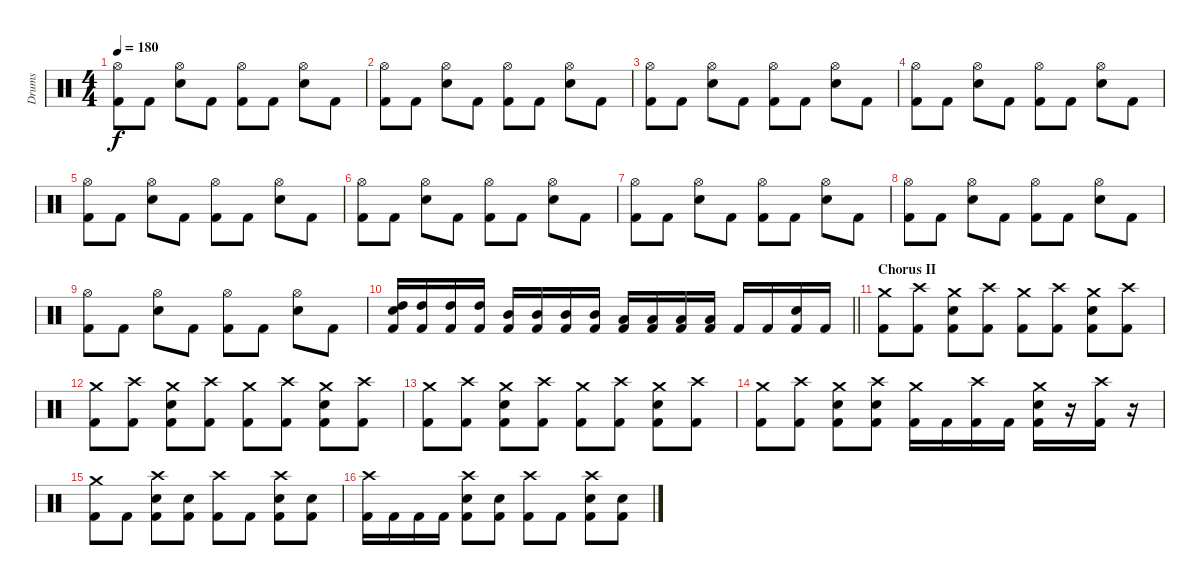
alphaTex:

\track ("Drums" "Drums") {instrument percussion}
\staff {score}
\articulation defaults
\ts (4 4)
\tempo 180
\clef neutral
\ks c
("Hi-Hat (open)" "Kick (hit) 2").8{dy f} "Kick (hit) 2".8 ("Hi-Hat (open)" "Electric Snare (hit)").8 "Kick (hit) 2".8 ("Hi-Hat (open)" "Kick (hit) 2").8 "Kick (hit) 2".8 ("Hi-Hat (open)" "Electric Snare (hit)").8 "Kick (hit) 2".8 |
("Hi-Hat (open)" "Kick (hit) 2").8 "Kick (hit) 2".8 ("Hi-Hat (open)" "Electric Snare (hit)").8 "Kick (hit) 2".8 ("Hi-Hat (open)" "Kick (hit) 2").8 "Kick (hit) 2".8 ("Hi-Hat (open)" "Electric Snare (hit)").8 "Kick (hit) 2".8 |
("Hi-Hat (open)" "Kick (hit) 2").8 "Kick (hit) 2".8 ("Hi-Hat (open)" "Electric Snare (hit)").8 "Kick (hit) 2".8 ("Hi-Hat (open)" "Kick (hit) 2").8 "Kick (hit) 2".8 ("Hi-Hat (open)" "Electric Snare (hit)").8 "Kick (hit) 2".8 |
("Hi-Hat (open)" "Kick (hit) 2").8 "Kick (hit) 2".8 ("Hi-Hat (open)" "Electric Snare (hit)").8 "Kick (hit) 2".8 ("Hi-Hat (open)" "Kick (hit) 2").8 "Kick (hit) 2".8 ("Hi-Hat (open)" "Electric Snare (hit)").8 "Kick (hit) 2".8 |
("Hi-Hat (open)" "Kick (hit) 2").8 "Kick (hit) 2".8 ("Hi-Hat (open)" "Electric Snare (hit)").8 "Kick (hit) 2".8 ("Hi-Hat (open)" "Kick (hit) 2").8 "Kick (hit) 2".8 ("Hi-Hat (open)" "Electric Snare (hit)").8 "Kick (hit) 2".8 |
("Hi-Hat (open)" "Kick (hit) 2").8 "Kick (hit) 2".8 ("Hi-Hat (open)" "Electric Snare (hit)").8 "Kick (hit) 2".8 ("Hi-Hat (open)" "Kick (hit) 2").8 "Kick (hit) 2".8 ("Hi-Hat (open)" "Electric Snare (hit)").8 "Kick (hit) 2".8 |
("Hi-Hat (open)" "Kick (hit) 2").8 "Kick (hit) 2".8 ("Hi-Hat (open)" "Electric Snare (hit)").8 "Kick (hit) 2".8 ("Hi-Hat (open)" "Kick (hit) 2").8 "Kick (hit) 2".8 ("Hi-Hat (open)" "Electric Snare (hit)").8 "Kick (hit) 2".8 |
("Hi-Hat (open)" "Kick (hit) 2").8 "Kick (hit) 2".8 ("Hi-Hat (open)" "Electric Snare (hit)").8 "Kick (hit) 2".8 ("Hi-Hat (open)" "Kick (hit) 2").8 "Kick (hit) 2".8 ("Hi-Hat (open)" "Electric Snare (hit)").8 "Kick (hit) 2".8 |
("Hi-Hat (open)" "Kick (hit) 2").8 "Kick (hit) 2".8 ("Hi-Hat (open)" "Electric Snare (hit)").8 "Kick (hit) 2".8 ("Hi-Hat (open)" "Kick (hit) 2").8 "Kick (hit) 2".8 ("Hi-Hat (open)" "Electric Snare (hit)").8 "Kick (hit) 2".8 |
\barLineRight lightlight
("High Tom (hit)" "Electric Snare (hit)" "Kick (hit) 2").16 ("High Tom (hit)" "Kick (hit) 2").16 ("High Tom (hit)" "Kick (hit) 2").16 ("High Tom (hit)" "Kick (hit) 2").16 ("Mid Tom (hit)" "Kick (hit) 2").16 ("Mid Tom (hit)" "Kick (hit) 2").16 ("Mid Tom (hit)" "Kick (hit) 2").16 ("Mid Tom (hit)" "Kick (hit) 2").16 ("Low Tom (hit)" "Kick (hit) 2").16 ("Low Tom (hit)" "Kick (hit) 2").16 ("Low Tom (hit)" "Kick (hit) 2").16 ("Low Tom (hit)" "Kick (hit) 2").16 "Kick (hit) 2".16 "Kick (hit) 2".16 ("Electric Snare (hit)" "Kick (hit) 2").16 "Kick (hit) 2".16 |
\section ("" "Chorus II")
("Crash medium (hit)" "Kick (hit) 2").8 ("Crash high (hit)" "Kick (hit) 2").8 ("Crash medium (hit)" "Electric Snare (hit)" "Kick (hit) 2").8 ("Crash high (hit)" "Kick (hit) 2").8 ("Crash medium (hit)" "Kick (hit) 2").8 ("Crash high (hit)" "Kick (hit) 2").8 ("Crash medium (hit)" "Electric Snare (hit)" "Kick (hit) 2").8 ("Crash high (hit)" "Kick (hit) 2").8 |
("Crash medium (hit)" "Kick (hit) 2").8 ("Crash high (hit)" "Kick (hit) 2").8 ("Crash medium (hit)" "Electric Snare (hit)" "Kick (hit) 2").8 ("Crash high (hit)" "Kick (hit) 2").8 ("Crash medium (hit)" "Kick (hit) 2").8 ("Crash high (hit)" "Kick (hit) 2").8 ("Crash medium (hit)" "Electric Snare (hit)" "Kick (hit) 2").8 ("Crash high (hit)" "Kick (hit) 2").8 |
("Crash medium (hit)" "Kick (hit) 2").8 ("Crash high (hit)" "Kick (hit) 2").8 ("Crash medium (hit)" "Electric Snare (hit)" "Kick (hit) 2").8 ("Crash high (hit)" "Kick (hit) 2").8 ("Crash medium (hit)" "Kick (hit) 2").8 ("Crash high (hit)" "Kick (hit) 2").8 ("Crash medium (hit)" "Electric Snare (hit)" "Kick (hit) 2").8 ("Crash high (hit)" "Kick (hit) 2").8 |
("Crash medium (hit)" "Kick (hit) 2").8 ("Crash high (hit)" "Kick (hit) 2").8 ("Crash medium (hit)" "Electric Snare (hit)" "Kick (hit) 2").8 ("Crash high (hit)" "Electric Snare (hit)" "Kick (hit) 2").8 ("Crash medium (hit)" "Kick (hit) 2").16 "Kick (hit) 2".16 ("Crash high (hit)" "Kick (hit) 2").16 "Kick (hit) 2".16 ("Crash medium (hit)" "Electric Snare (hit)" "Kick (hit) 2").16 r.16 ("Crash high (hit)" "Kick (hit) 2").16 r.16 |
("Crash medium (hit)" "Kick (hit) 2").8 "Kick (hit) 2".8 ("Crash high (hit)" "Electric Snare (hit)" "Kick (hit) 2").8 ("Electric Snare (hit)" "Kick (hit) 2").8 ("Crash high (hit)" "Kick (hit) 2").8 "Kick (hit) 2".8 ("Crash high (hit)" "Electric Snare (hit)" "Kick (hit) 2").8 ("Electric Snare (hit)" "Kick (hit) 2").8 |
("Crash high (hit)" "Kick (hit) 2").16 "Kick (hit) 2".16 "Kick (hit) 2".16 "Kick (hit) 2".16 ("Crash high (hit)" "Electric Snare (hit)" "Kick (hit) 2").8 ("Electric Snare (hit)" "Kick (hit) 2").8 ("Crash high (hit)" "Kick (hit) 2").8 "Kick (hit) 2".8 ("Crash high (hit)" "Electric Snare (hit)" "Kick (hit) 2").8 ("Electric Snare (hit)" "Kick (hit) 2").8
